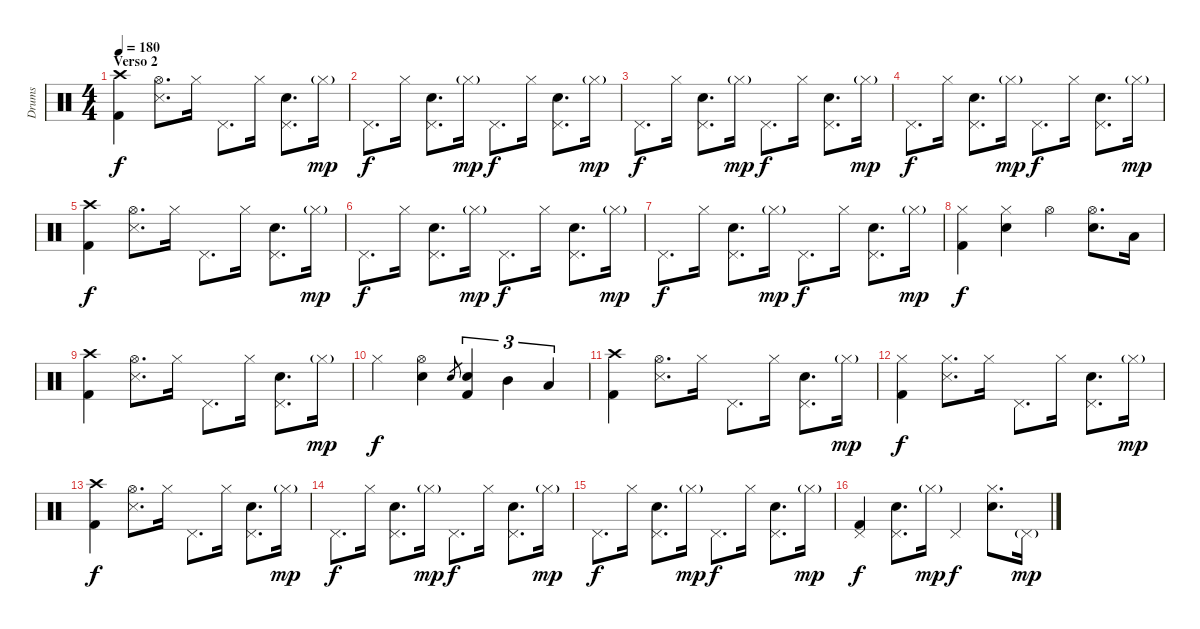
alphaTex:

\track ("Drums" "Drums") {instrument percussion}
\staff {score}
\articulation defaults
\ts (4 4)
\section ("" "Verso 2")
\tempo 180
\clef neutral
\ks c
("Crash high (hit)" "Kick (hit) 2").4{dy f} ("Hi-Hat (open)" "Snare (side stick) 3").8{d} "Hi-Hat (closed)".16 "Pedal Hi-Hat (hit)".8{d} "Hi-Hat (closed)".16 ("Pedal Hi-Hat (hit)" "Snare (hit) 2").8{d} "Hi-Hat (closed)"{g}.16{dy mp} |
"Pedal Hi-Hat (hit)".8{d dy f} "Hi-Hat (closed)".16 ("Pedal Hi-Hat (hit)" "Snare (hit) 2").8{d} "Hi-Hat (closed)"{g}.16{dy mp} "Pedal Hi-Hat (hit)".8{d dy f} "Hi-Hat (closed)".16 ("Pedal Hi-Hat (hit)" "Snare (hit) 2").8{d} "Hi-Hat (closed)"{g}.16{dy mp} |
"Pedal Hi-Hat (hit)".8{d dy f} "Hi-Hat (closed)".16 ("Pedal Hi-Hat (hit)" "Snare (hit) 2").8{d} "Hi-Hat (closed)"{g}.16{dy mp} "Pedal Hi-Hat (hit)".8{d dy f} "Hi-Hat (closed)".16 ("Pedal Hi-Hat (hit)" "Snare (hit) 2").8{d} "Hi-Hat (closed)"{g}.16{dy mp} |
"Pedal Hi-Hat (hit)".8{d dy f} "Hi-Hat (closed)".16 ("Pedal Hi-Hat (hit)" "Snare (hit) 2").8{d} "Hi-Hat (closed)"{g}.16{dy mp} "Pedal Hi-Hat (hit)".8{d dy f} "Hi-Hat (closed)".16 ("Pedal Hi-Hat (hit)" "Snare (hit) 2").8{d} "Hi-Hat (closed)"{g}.16{dy mp} |
("Crash high (hit)" "Kick (hit) 2").4{dy f} ("Hi-Hat (open)" "Snare (side stick) 3").8{d} "Hi-Hat (closed)".16 "Pedal Hi-Hat (hit)".8{d} "Hi-Hat (closed)".16 ("Pedal Hi-Hat (hit)" "Snare (hit) 2").8{d} "Hi-Hat (closed)"{g}.16{dy mp} |
"Pedal Hi-Hat (hit)".8{d dy f} "Hi-Hat (closed)".16 ("Pedal Hi-Hat (hit)" "Snare (hit) 2").8{d} "Hi-Hat (closed)"{g}.16{dy mp} "Pedal Hi-Hat (hit)".8{d dy f} "Hi-Hat (closed)".16 ("Pedal Hi-Hat (hit)" "Snare (hit) 2").8{d} "Hi-Hat (closed)"{g}.16{dy mp} |
"Pedal Hi-Hat (hit)".8{d dy f} "Hi-Hat (closed)".16 ("Pedal Hi-Hat (hit)" "Snare (hit) 2").8{d} "Hi-Hat (closed)"{g}.16{dy mp} "Pedal Hi-Hat (hit)".8{d dy f} "Hi-Hat (closed)".16 ("Pedal Hi-Hat (hit)" "Snare (hit) 2").8{d} "Hi-Hat (closed)"{g}.16{dy mp} |
("Hi-Hat (closed)" "Kick (hit) 2").4{dy f} ("Hi-Hat (closed)" "Snare (hit) 2").4 "Hi-Hat (open)".4 ("Hi-Hat (open)" "Snare (hit) 2").8{d} "Low Tom (hit)".16 |
("Crash high (hit)" "Kick (hit) 2").4 ("Hi-Hat (open)" "Snare (side stick) 3").8{d} "Hi-Hat (closed)".16 "Pedal Hi-Hat (hit)".8{d} "Hi-Hat (closed)".16 ("Pedal Hi-Hat (hit)" "Snare (hit) 2").8{d} "Hi-Hat (closed)"{g}.16{dy mp} |
"Hi-Hat (closed)".4{dy f} ("Hi-Hat (open)" "Snare (hit) 2").4 "Snare (hit) 2".8{gr} ("Snare (hit) 2" "Kick (hit) 2").4{tu (3 2)} "Mid Tom (hit)".4{tu (3 2)} "Low Tom (hit)".4{tu (3 2)} |
("Crash high (hit)" "Kick (hit) 2").4 ("Hi-Hat (open)" "Snare (side stick) 3").8{d} "Hi-Hat (closed)".16 "Pedal Hi-Hat (hit)".8{d} "Hi-Hat (closed)".16 ("Pedal Hi-Hat (hit)" "Snare (hit) 2").8{d} "Hi-Hat (closed)"{g}.16{dy mp} |
("Hi-Hat (closed)" "Kick (hit) 2").4{dy f} ("Hi-Hat (closed)" "Snare (side stick) 3").8{d} "Hi-Hat (closed)".16 "Pedal Hi-Hat (hit)".8{d} "Hi-Hat (closed)".16 ("Pedal Hi-Hat (hit)" "Snare (hit) 2").8{d} "Hi-Hat (closed)"{g}.16{dy mp} |
("Crash high (hit)" "Kick (hit) 2").4{dy f} ("Hi-Hat (open)" "Snare (side stick) 3").8{d} "Hi-Hat (closed)".16 "Pedal Hi-Hat (hit)".8{d} "Hi-Hat (closed)".16 ("Pedal Hi-Hat (hit)" "Snare (hit) 2").8{d} "Hi-Hat (closed)"{g}.16{dy mp} |
"Pedal Hi-Hat (hit)".8{d dy f} "Hi-Hat (closed)".16 ("Pedal Hi-Hat (hit)" "Snare (hit) 2").8{d} "Hi-Hat (closed)"{g}.16{dy mp} "Pedal Hi-Hat (hit)".8{d dy f} "Hi-Hat (closed)".16 ("Pedal Hi-Hat (hit)" "Snare (hit) 2").8{d} "Hi-Hat (closed)"{g}.16{dy mp} |
"Pedal Hi-Hat (hit)".8{d dy f} "Hi-Hat (closed)".16 ("Pedal Hi-Hat (hit)" "Snare (hit) 2").8{d} "Hi-Hat (closed)"{g}.16{dy mp} "Pedal Hi-Hat (hit)".8{d dy f} "Hi-Hat (closed)".16 ("Pedal Hi-Hat (hit)" "Snare (hit) 2").8{d} "Hi-Hat (closed)"{g}.16{dy mp} |
("Pedal Hi-Hat (hit)" "Kick (hit) 2").4{dy f} ("Pedal Hi-Hat (hit)" "Snare (hit) 2").8{d} "Hi-Hat (closed)"{g}.16{dy mp} "Pedal Hi-Hat (hit)".4{dy f} ("Hi-Hat (closed)" "Snare (hit) 2").8{d} "Pedal Hi-Hat (hit)"{g}.16{dy mp}
